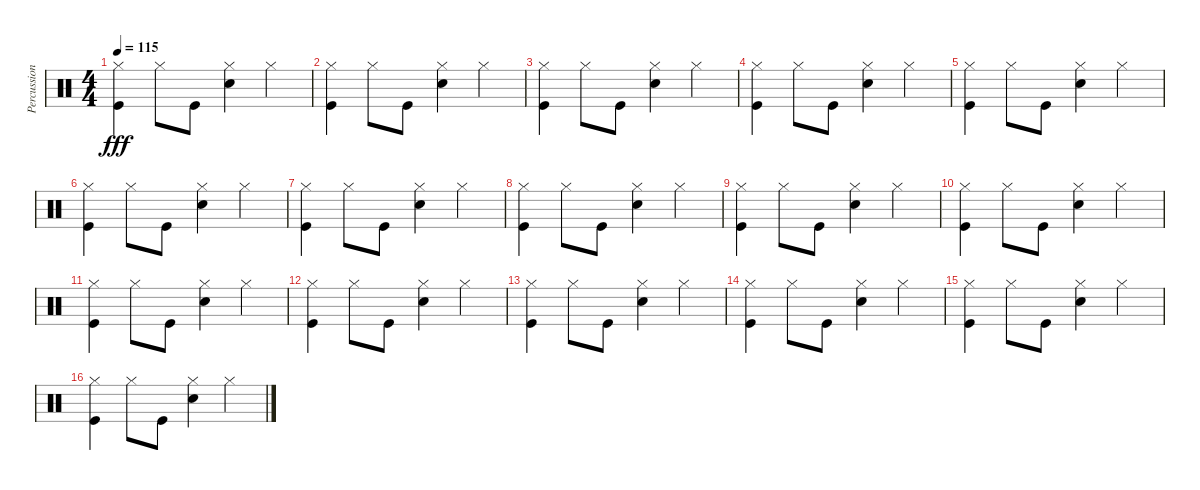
\track ("Percussioni" "Percussion") {instrument percussion}
\staff {score}
\articulation defaults
\ts (4 4)
\tempo 115
\clef neutral
\ks c
("Hi-Hat (closed)" "Kick (hit)").4{dy fff} "Hi-Hat (closed)".8 "Kick (hit)".8 ("Hi-Hat (closed)" "Snare (hit) 2").4 "Hi-Hat (closed)".4 |
("Hi-Hat (closed)" "Kick (hit)").4 "Hi-Hat (closed)".8 "Kick (hit)".8 ("Hi-Hat (closed)" "Snare (hit) 2").4 "Hi-Hat (closed)".4 |
("Hi-Hat (closed)" "Kick (hit)").4 "Hi-Hat (closed)".8 "Kick (hit)".8 ("Hi-Hat (closed)" "Snare (hit) 2").4 "Hi-Hat (closed)".4 |
("Hi-Hat (closed)" "Kick (hit)").4 "Hi-Hat (closed)".8 "Kick (hit)".8 ("Hi-Hat (closed)" "Snare (hit) 2").4 "Hi-Hat (closed)".4 |
("Hi-Hat (closed)" "Kick (hit)").4 "Hi-Hat (closed)".8 "Kick (hit)".8 ("Hi-Hat (closed)" "Snare (hit) 2").4 "Hi-Hat (closed)".4 |
("Hi-Hat (closed)" "Kick (hit)").4 "Hi-Hat (closed)".8 "Kick (hit)".8 ("Hi-Hat (closed)" "Snare (hit) 2").4 "Hi-Hat (closed)".4 |
("Hi-Hat (closed)" "Kick (hit)").4 "Hi-Hat (closed)".8 "Kick (hit)".8 ("Hi-Hat (closed)" "Snare (hit) 2").4 "Hi-Hat (closed)".4 |
("Hi-Hat (closed)" "Kick (hit)").4 "Hi-Hat (closed)".8 "Kick (hit)".8 ("Hi-Hat (closed)" "Snare (hit) 2").4 "Hi-Hat (closed)".4 |
("Hi-Hat (closed)" "Kick (hit)").4 "Hi-Hat (closed)".8 "Kick (hit)".8 ("Hi-Hat (closed)" "Snare (hit) 2").4 "Hi-Hat (closed)".4 |
("Hi-Hat (closed)" "Kick (hit)").4 "Hi-Hat (closed)".8 "Kick (hit)".8 ("Hi-Hat (closed)" "Snare (hit) 2").4 "Hi-Hat (closed)".4 |
("Hi-Hat (closed)" "Kick (hit)").4 "Hi-Hat (closed)".8 "Kick (hit)".8 ("Hi-Hat (closed)" "Snare (hit) 2").4 "Hi-Hat (closed)".4 |
("Hi-Hat (closed)" "Kick (hit)").4 "Hi-Hat (closed)".8 "Kick (hit)".8 ("Hi-Hat (closed)" "Snare (hit) 2").4 "Hi-Hat (closed)".4 |
("Hi-Hat (closed)" "Kick (hit)").4 "Hi-Hat (closed)".8 "Kick (hit)".8 ("Hi-Hat (closed)" "Snare (hit) 2").4 "Hi-Hat (closed)".4 |
("Hi-Hat (closed)" "Kick (hit)").4 "Hi-Hat (closed)".8 "Kick (hit)".8 ("Hi-Hat (closed)" "Snare (hit) 2").4 "Hi-Hat (closed)".4 |
("Hi-Hat (closed)" "Kick (hit)").4 "Hi-Hat (closed)".8 "Kick (hit)".8 ("Hi-Hat (closed)" "Snare (hit) 2").4 "Hi-Hat (closed)".4 |
("Hi-Hat (closed)" "Kick (hit)").4 "Hi-Hat (closed)".8 "Kick (hit)".8 ("Hi-Hat (closed)" "Snare (hit) 2").4 "Hi-Hat (closed)".4
